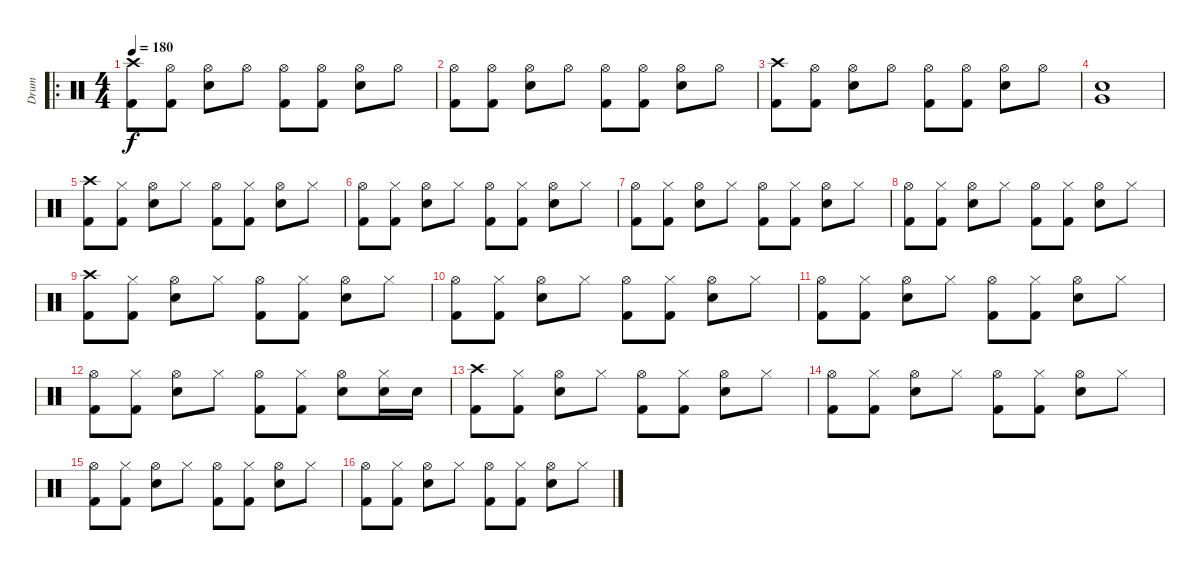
\track ("Drum" "Drum") {instrument percussion}
\staff {score}
\articulation defaults
\ro
\ts (4 4)
\tempo 180
\clef neutral
\ks c
("Crash high (hit)" "Kick (hit) 2").8{dy f} ("Hi-Hat (open)" "Kick (hit) 2").8 ("Hi-Hat (open)" "Electric Snare (hit)").8 "Hi-Hat (open)".8 ("Hi-Hat (open)" "Kick (hit) 2").8 ("Hi-Hat (open)" "Kick (hit) 2").8 ("Hi-Hat (open)" "Electric Snare (hit)").8 "Hi-Hat (open)".8 |
("Hi-Hat (open)" "Kick (hit) 2").8 ("Hi-Hat (open)" "Kick (hit) 2").8 ("Hi-Hat (open)" "Electric Snare (hit)").8 "Hi-Hat (open)".8 ("Hi-Hat (open)" "Kick (hit) 2").8 ("Hi-Hat (open)" "Kick (hit) 2").8 ("Hi-Hat (open)" "Electric Snare (hit)").8 "Hi-Hat (open)".8 |
("Crash high (hit)" "Kick (hit) 2").8 ("Hi-Hat (open)" "Kick (hit) 2").8 ("Hi-Hat (open)" "Electric Snare (hit)").8 "Hi-Hat (open)".8 ("Hi-Hat (open)" "Kick (hit) 2").8 ("Hi-Hat (open)" "Kick (hit) 2").8 ("Hi-Hat (open)" "Electric Snare (hit)").8 "Hi-Hat (open)".8 |
("Very Low Tom (hit)" "Electric Snare (hit)").1 |
("Crash high (hit)" "Kick (hit) 2").8 ("Hi-Hat (closed)" "Kick (hit) 2").8 ("Hi-Hat (open)" "Electric Snare (hit)").8 "Hi-Hat (closed)".8 ("Hi-Hat (open)" "Kick (hit) 2").8 ("Hi-Hat (closed)" "Kick (hit) 2").8 ("Hi-Hat (open)" "Electric Snare (hit)").8 "Hi-Hat (closed)".8 |
("Hi-Hat (open)" "Kick (hit) 2").8 ("Hi-Hat (closed)" "Kick (hit) 2").8 ("Hi-Hat (open)" "Electric Snare (hit)").8 "Hi-Hat (closed)".8 ("Hi-Hat (open)" "Kick (hit) 2").8 ("Hi-Hat (closed)" "Kick (hit) 2").8 ("Hi-Hat (open)" "Electric Snare (hit)").8 "Hi-Hat (closed)".8 |
("Hi-Hat (open)" "Kick (hit) 2").8 ("Hi-Hat (closed)" "Kick (hit) 2").8 ("Hi-Hat (open)" "Electric Snare (hit)").8 "Hi-Hat (closed)".8 ("Hi-Hat (open)" "Kick (hit) 2").8 ("Hi-Hat (closed)" "Kick (hit) 2").8 ("Hi-Hat (open)" "Electric Snare (hit)").8 "Hi-Hat (closed)".8 |
("Hi-Hat (open)" "Kick (hit) 2").8 ("Hi-Hat (closed)" "Kick (hit) 2").8 ("Hi-Hat (open)" "Electric Snare (hit)").8 "Hi-Hat (closed)".8 ("Hi-Hat (open)" "Kick (hit) 2").8 ("Hi-Hat (closed)" "Kick (hit) 2").8 ("Hi-Hat (open)" "Electric Snare (hit)").8 "Hi-Hat (closed)".8 |
("Crash high (hit)" "Kick (hit) 2").8 ("Hi-Hat (closed)" "Kick (hit) 2").8 ("Hi-Hat (open)" "Electric Snare (hit)").8 "Hi-Hat (closed)".8 ("Hi-Hat (open)" "Kick (hit) 2").8 ("Hi-Hat (closed)" "Kick (hit) 2").8 ("Hi-Hat (open)" "Electric Snare (hit)").8 "Hi-Hat (closed)".8 |
("Hi-Hat (open)" "Kick (hit) 2").8 ("Hi-Hat (closed)" "Kick (hit) 2").8 ("Hi-Hat (open)" "Electric Snare (hit)").8 "Hi-Hat (closed)".8 ("Hi-Hat (open)" "Kick (hit) 2").8 ("Hi-Hat (closed)" "Kick (hit) 2").8 ("Hi-Hat (open)" "Electric Snare (hit)").8 "Hi-Hat (closed)".8 |
("Hi-Hat (open)" "Kick (hit) 2").8 ("Hi-Hat (closed)" "Kick (hit) 2").8 ("Hi-Hat (open)" "Electric Snare (hit)").8 "Hi-Hat (closed)".8 ("Hi-Hat (open)" "Kick (hit) 2").8 ("Hi-Hat (closed)" "Kick (hit) 2").8 ("Hi-Hat (open)" "Electric Snare (hit)").8 "Hi-Hat (closed)".8 |
("Hi-Hat (open)" "Kick (hit) 2").8 ("Hi-Hat (closed)" "Kick (hit) 2").8 ("Hi-Hat (open)" "Electric Snare (hit)").8 "Hi-Hat (closed)".8 ("Hi-Hat (open)" "Kick (hit) 2").8 ("Hi-Hat (closed)" "Kick (hit) 2").8 ("Hi-Hat (open)" "Electric Snare (hit)").8 ("Hi-Hat (closed)" "Electric Snare (hit)").16 "Electric Snare (hit)".16 |
("Crash high (hit)" "Kick (hit) 2").8 ("Hi-Hat (closed)" "Kick (hit) 2").8 ("Hi-Hat (open)" "Electric Snare (hit)").8 "Hi-Hat (closed)".8 ("Hi-Hat (open)" "Kick (hit) 2").8 ("Hi-Hat (closed)" "Kick (hit) 2").8 ("Hi-Hat (open)" "Electric Snare (hit)").8 "Hi-Hat (closed)".8 |
("Hi-Hat (open)" "Kick (hit) 2").8 ("Hi-Hat (closed)" "Kick (hit) 2").8 ("Hi-Hat (open)" "Electric Snare (hit)").8 "Hi-Hat (closed)".8 ("Hi-Hat (open)" "Kick (hit) 2").8 ("Hi-Hat (closed)" "Kick (hit) 2").8 ("Hi-Hat (open)" "Electric Snare (hit)").8 "Hi-Hat (closed)".8 |
("Hi-Hat (open)" "Kick (hit) 2").8 ("Hi-Hat (closed)" "Kick (hit) 2").8 ("Hi-Hat (open)" "Electric Snare (hit)").8 "Hi-Hat (closed)".8 ("Hi-Hat (open)" "Kick (hit) 2").8 ("Hi-Hat (closed)" "Kick (hit) 2").8 ("Hi-Hat (open)" "Electric Snare (hit)").8 "Hi-Hat (closed)".8 |
("Hi-Hat (open)" "Kick (hit) 2").8 ("Hi-Hat (closed)" "Kick (hit) 2").8 ("Hi-Hat (open)" "Electric Snare (hit)").8 "Hi-Hat (closed)".8 ("Hi-Hat (open)" "Kick (hit) 2").8 ("Hi-Hat (closed)" "Kick (hit) 2").8 ("Hi-Hat (open)" "Electric Snare (hit)").8 "Hi-Hat (closed)".8
